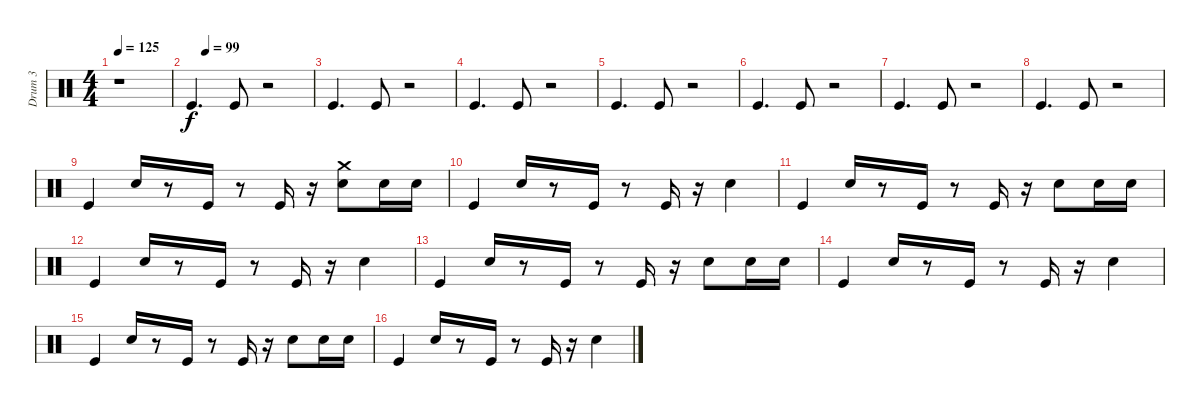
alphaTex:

\track ("Drum 3" "Drum 3") {instrument percussion}
\staff {score}
\articulation defaults
\ts (4 4)
\tempo 125
\clef neutral
\ks c
r.1{dy f} |
\tempo (99 0.125)
"Kick (hit)".4{d} "Kick (hit)".8 r.2 |
"Kick (hit)".4{d} "Kick (hit)".8 r.2 |
"Kick (hit)".4{d} "Kick (hit)".8 r.2 |
"Kick (hit)".4{d} "Kick (hit)".8 r.2 |
"Kick (hit)".4{d} "Kick (hit)".8 r.2 |
"Kick (hit)".4{d} "Kick (hit)".8 r.2 |
"Kick (hit)".4{d} "Kick (hit)".8 r.2 |
"Kick (hit)".4 "Snare (hit) 2".16 r.8 "Kick (hit)".16 r.8 "Kick (hit)".16 r.16 ("Crash medium (hit)" "Snare (hit) 2").8 "Snare (hit) 2".16 "Snare (hit) 2".16 |
"Kick (hit)".4 "Snare (hit) 2".16 r.8 "Kick (hit)".16 r.8 "Kick (hit)".16 r.16 "Snare (hit) 2".4 |
"Kick (hit)".4 "Snare (hit) 2".16 r.8 "Kick (hit)".16 r.8 "Kick (hit)".16 r.16 "Snare (hit) 2".8 "Snare (hit) 2".16 "Snare (hit) 2".16 |
"Kick (hit)".4 "Snare (hit) 2".16 r.8 "Kick (hit)".16 r.8 "Kick (hit)".16 r.16 "Snare (hit) 2".4 |
"Kick (hit)".4 "Snare (hit) 2".16 r.8 "Kick (hit)".16 r.8 "Kick (hit)".16 r.16 "Snare (hit) 2".8 "Snare (hit) 2".16 "Snare (hit) 2".16 |
"Kick (hit)".4 "Snare (hit) 2".16 r.8 "Kick (hit)".16 r.8 "Kick (hit)".16 r.16 "Snare (hit) 2".4 |
"Kick (hit)".4 "Snare (hit) 2".16 r.8 "Kick (hit)".16 r.8 "Kick (hit)".16 r.16 "Snare (hit) 2".8 "Snare (hit) 2".16 "Snare (hit) 2".16 |
"Kick (hit)".4 "Snare (hit) 2".16 r.8 "Kick (hit)".16 r.8 "Kick (hit)".16 r.16 "Snare (hit) 2".4
